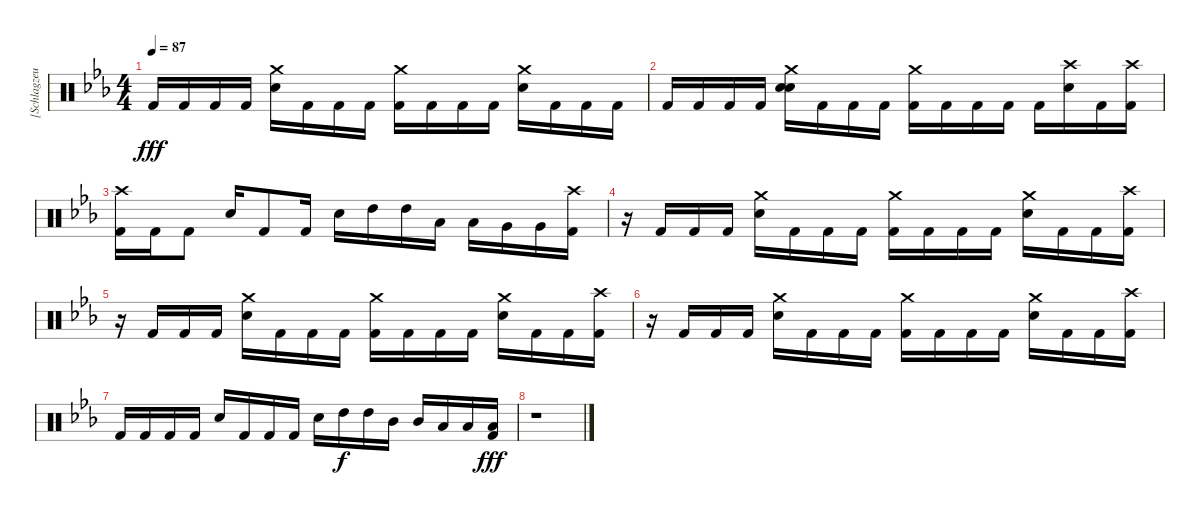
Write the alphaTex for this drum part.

\track ("[Schlagzeug]" "[Schlagzeu") {instrument percussion}
\staff {score}
\articulation defaults
\ts (4 4)
\tempo 87
\clef neutral
\ks cminor "Kick (hit) 2".16{dy fff} "Kick (hit) 2".16 "Kick (hit) 2".16 "Kick (hit) 2".16
("Crash medium (hit)" "Electric Snare (hit)").16 "Kick (hit) 2".16 "Kick (hit) 2".16 "Kick (hit) 2".16 ("Crash medium (hit)" "Kick (hit) 2").16 "Kick (hit) 2".16 "Kick (hit) 2".16 "Kick (hit) 2".16 ("Crash medium (hit)" "Electric Snare (hit)").16 "Kick (hit) 2".16 "Kick (hit) 2".16 "Kick (hit) 2".16 |
"Kick (hit) 2".16 "Kick (hit) 2".16 "Kick (hit) 2".16 "Kick (hit) 2".16 ("Electric Snare (hit)" "Crash medium (hit)" "Electric Snare (hit)").16 "Kick (hit) 2".16 "Kick (hit) 2".16 "Kick (hit) 2".16 ("Crash medium (hit)" "Kick (hit) 2").16 "Kick (hit) 2".16 "Kick (hit) 2".16 "Kick (hit) 2".16 "Kick (hit) 2".16 ("Electric Snare (hit)" "Crash high (hit)").16 "Kick (hit) 2".16 ("Kick (hit) 2" "Crash high (hit)").16 |
("Crash high (hit)" "Kick (hit) 2").16 "Kick (hit) 2".16 "Kick (hit) 2".8 "Electric Snare (hit)".16 "Kick (hit) 2".8 "Kick (hit) 2".16 "Electric Snare (hit)".16 "High Tom (hit)".16 "High Tom (hit)".16 "Low Tom (hit)".16 "Low Tom (hit)".16 "Very Low Tom (hit)".16 "Very Low Tom (hit)".16 ("Kick (hit) 2" "Crash high (hit)").16 |
r.16 "Kick (hit) 2".16 "Kick (hit) 2".16 "Kick (hit) 2".16 ("Crash medium (hit)" "Electric Snare (hit)").16 "Kick (hit) 2".16 "Kick (hit) 2".16 "Kick (hit) 2".16 ("Crash medium (hit)" "Kick (hit) 2").16 "Kick (hit) 2".16 "Kick (hit) 2".16 "Kick (hit) 2".16 ("Crash medium (hit)" "Electric Snare (hit)").16 "Kick (hit) 2".16 "Kick (hit) 2".16 ("Crash high (hit)" "Kick (hit) 2").16 |
r.16 "Kick (hit) 2".16 "Kick (hit) 2".16 "Kick (hit) 2".16 ("Crash medium (hit)" "Electric Snare (hit)").16 "Kick (hit) 2".16 "Kick (hit) 2".16 "Kick (hit) 2".16 ("Crash medium (hit)" "Kick (hit) 2").16 "Kick (hit) 2".16 "Kick (hit) 2".16 "Kick (hit) 2".16 ("Crash medium (hit)" "Electric Snare (hit)").16 "Kick (hit) 2".16 "Kick (hit) 2".16 ("Crash high (hit)" "Kick (hit) 2").16 |
r.16 "Kick (hit) 2".16 "Kick (hit) 2".16 "Kick (hit) 2".16 ("Crash medium (hit)" "Electric Snare (hit)").16 "Kick (hit) 2".16 "Kick (hit) 2".16 "Kick (hit) 2".16 ("Crash medium (hit)" "Kick (hit) 2").16 "Kick (hit) 2".16 "Kick (hit) 2".16 "Kick (hit) 2".16 ("Crash medium (hit)" "Electric Snare (hit)").16 "Kick (hit) 2".16 "Kick (hit) 2".16 ("Crash high (hit)" "Kick (hit) 2").16 |
"Kick (hit) 2".16 "Kick (hit) 2".16 "Kick (hit) 2".16 "Kick (hit) 2".16 "Electric Snare (hit)".16 "Kick (hit) 2".16 "Kick (hit) 2".16 "Kick (hit) 2".16 "Electric Snare (hit)".16 "High Tom (hit)".16{dy f} "High Tom (hit)".16 "Mid Tom (hit)".16 "Mid Tom (hit)".16 "Low Tom (hit)".16 "Low Tom (hit)".16 ("Kick (hit) 2" "Low Floor Tom (hit)").16{dy fff} |
r.1
